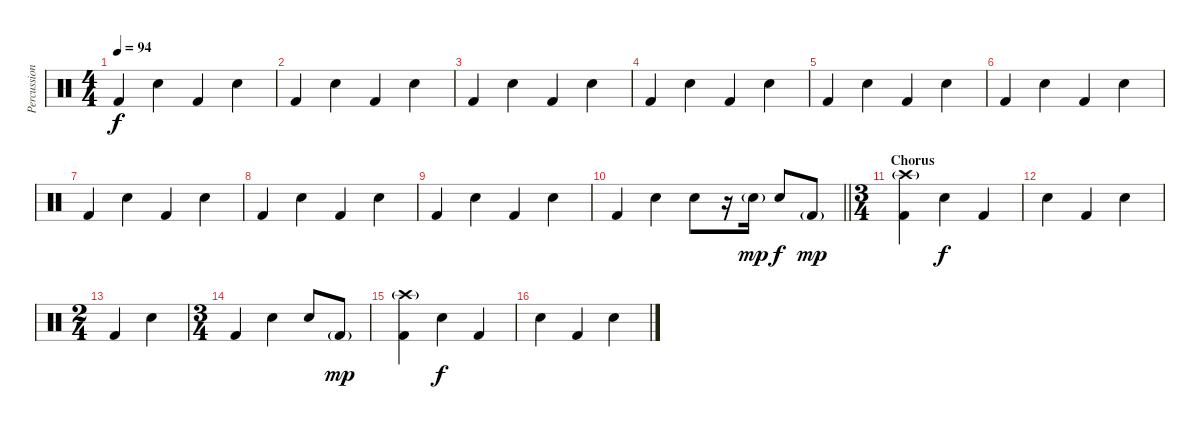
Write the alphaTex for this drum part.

\track ("Percussion" "Percussion") {instrument percussion}
\staff {score}
\articulation defaults
\ts (4 4)
\tempo 94
\clef neutral
\ks c "Kick (hit) 2".4{dy f} "Snare (hit) 2".4 "Kick (hit) 2".4 "Snare (hit) 2".4
|
"Kick (hit) 2".4 "Snare (hit) 2".4 "Kick (hit) 2".4 "Snare (hit) 2".4 |
"Kick (hit) 2".4 "Snare (hit) 2".4 "Kick (hit) 2".4 "Snare (hit) 2".4 |
"Kick (hit) 2".4 "Snare (hit) 2".4 "Kick (hit) 2".4 "Snare (hit) 2".4 |
"Kick (hit) 2".4 "Snare (hit) 2".4 "Kick (hit) 2".4 "Snare (hit) 2".4 |
"Kick (hit) 2".4 "Snare (hit) 2".4 "Kick (hit) 2".4 "Snare (hit) 2".4 |
"Kick (hit) 2".4 "Snare (hit) 2".4 "Kick (hit) 2".4 "Snare (hit) 2".4 |
"Kick (hit) 2".4 "Snare (hit) 2".4 "Kick (hit) 2".4 "Snare (hit) 2".4 |
"Kick (hit) 2".4 "Snare (hit) 2".4 "Kick (hit) 2".4 "Snare (hit) 2".4 |
\barLineRight lightlight "Kick (hit) 2".4 "Snare (hit) 2".4 "Snare (hit) 2".8
r.16 "Snare (hit) 2"{g}.16{dy mp} "Snare (hit) 2".8{dy f} "Kick (hit) 2"{g}.8{dy mp} |
\ts (3 4)
\section ("" "Chorus")
("Crash high (hit)"{g} "Kick (hit) 2").4 "Snare (hit) 2".4{dy f} "Kick (hit) 2".4 |
"Snare (hit) 2".4 "Kick (hit) 2".4 "Snare (hit) 2".4 |
\ts (2 4)
"Kick (hit) 2".4 "Snare (hit) 2".4 |
\ts (3 4)
"Kick (hit) 2".4 "Snare (hit) 2".4 "Snare (hit) 2".8 "Kick (hit) 2"{g}.8{dy mp} |
("Crash high (hit)"{g} "Kick (hit) 2").4 "Snare (hit) 2".4{dy f} "Kick (hit) 2".4 |
"Snare (hit) 2".4 "Kick (hit) 2".4 "Snare (hit) 2".4
